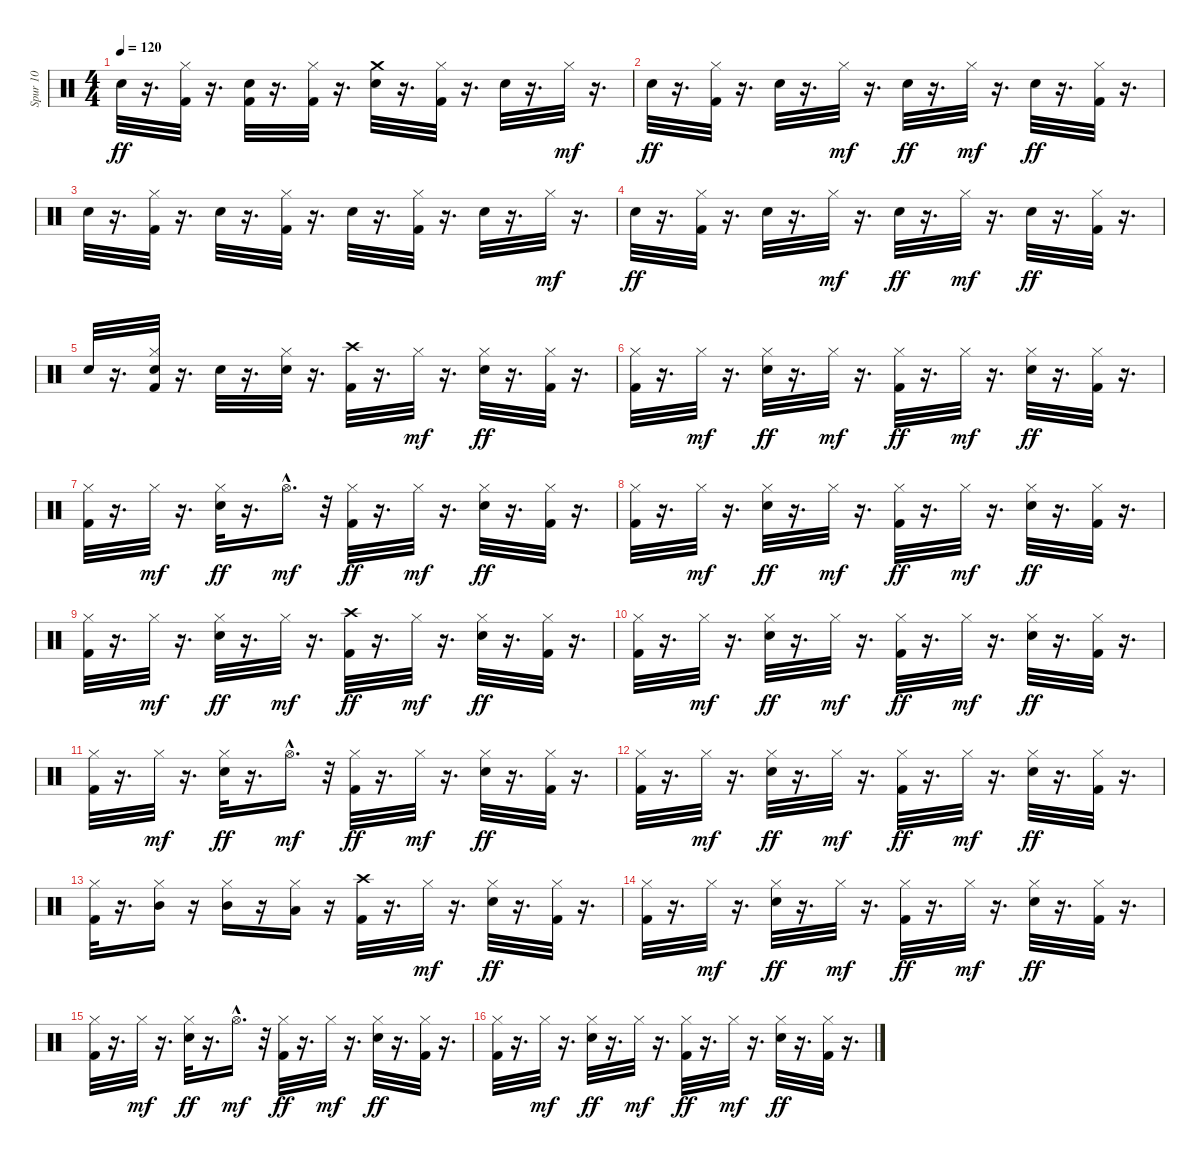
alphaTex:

\track ("Spur 10" "Spur 10") {instrument percussion}
\staff {score}
\articulation defaults
\ts (4 4)
\tempo 120
\clef neutral
\ks c "Snare (hit) 2".32{dy ff}
r.16{d} ("Hi-Hat (closed)" "Kick (hit) 2").32 r.16{d} ("Kick (hit) 2" "Snare (hit) 2").32 r.16{d} ("Hi-Hat (closed)" "Kick (hit) 2").32 r.16{d} ("Crash medium (hit)" "Snare (hit) 2").32 r.16{d} ("Hi-Hat (closed)" "Kick (hit) 2").32 r.16{d} "Snare (hit) 2".32 r.16{d} "Hi-Hat (closed)".32{dy mf} r.16{d} |
"Snare (hit) 2".32{dy ff} r.16{d} ("Hi-Hat (closed)" "Kick (hit) 2").32 r.16{d} "Snare (hit) 2".32 r.16{d} "Hi-Hat (closed)".32{dy mf} r.16{d} "Snare (hit) 2".32{dy ff} r.16{d} "Hi-Hat (closed)".32{dy mf} r.16{d} "Snare (hit) 2".32{dy ff} r.16{d} ("Hi-Hat (closed)" "Kick (hit) 2").32 r.16{d} |
"Snare (hit) 2".32 r.16{d} ("Hi-Hat (closed)" "Kick (hit) 2").32 r.16{d} "Snare (hit) 2".32 r.16{d} ("Hi-Hat (closed)" "Kick (hit) 2").32 r.16{d} "Snare (hit) 2".32 r.16{d} ("Hi-Hat (closed)" "Kick (hit) 2").32 r.16{d} "Snare (hit) 2".32 r.16{d} "Hi-Hat (closed)".32{dy mf} r.16{d} |
"Snare (hit) 2".32{dy ff} r.16{d} ("Hi-Hat (closed)" "Kick (hit) 2").32 r.16{d} "Snare (hit) 2".32 r.16{d} "Hi-Hat (closed)".32{dy mf} r.16{d} "Snare (hit) 2".32{dy ff} r.16{d} "Hi-Hat (closed)".32{dy mf} r.16{d} "Snare (hit) 2".32{dy ff} r.16{d} ("Hi-Hat (closed)" "Kick (hit) 2").32 r.16{d} |
"Snare (hit) 2".32 r.16{d} ("Hi-Hat (closed)" "Snare (hit) 2" "Kick (hit) 2").32 r.16{d} "Snare (hit) 2".32 r.16{d} ("Hi-Hat (closed)" "Snare (hit) 2").32 r.16{d} ("Crash high (hit)" "Kick (hit) 2").32 r.16{d} "Hi-Hat (closed)".32{dy mf} r.16{d} ("Hi-Hat (closed)" "Snare (hit) 2").32{dy ff} r.16{d} ("Hi-Hat (closed)" "Kick (hit) 2").32 r.16{d} |
("Hi-Hat (closed)" "Kick (hit) 2").32 r.16{d} "Hi-Hat (closed)".32{dy mf} r.16{d} ("Hi-Hat (closed)" "Snare (hit) 2").32{dy ff} r.16{d} "Hi-Hat (closed)".32{dy mf} r.16{d} ("Hi-Hat (closed)" "Kick (hit) 2").32{dy ff} r.16{d} "Hi-Hat (closed)".32{dy mf} r.16{d} ("Hi-Hat (closed)" "Snare (hit) 2").32{dy ff} r.16{d} ("Hi-Hat (closed)" "Kick (hit) 2").32 r.16{d} |
("Hi-Hat (closed)" "Kick (hit) 2").32 r.16{d} "Hi-Hat (closed)".32{dy mf} r.16{d} ("Hi-Hat (closed)" "Snare (hit) 2").32{dy ff} r.16{d} "Hi-Hat (open)"{hac}.16{d dy mf} r.32 ("Hi-Hat (closed)" "Kick (hit) 2").32{dy ff} r.16{d} "Hi-Hat (closed)".32{dy mf} r.16{d} ("Hi-Hat (closed)" "Snare (hit) 2").32{dy ff} r.16{d} ("Hi-Hat (closed)" "Kick (hit) 2").32 r.16{d} |
("Hi-Hat (closed)" "Kick (hit) 2").32 r.16{d} "Hi-Hat (closed)".32{dy mf} r.16{d} ("Hi-Hat (closed)" "Snare (hit) 2").32{dy ff} r.16{d} "Hi-Hat (closed)".32{dy mf} r.16{d} ("Hi-Hat (closed)" "Kick (hit) 2").32{dy ff} r.16{d} "Hi-Hat (closed)".32{dy mf} r.16{d} ("Hi-Hat (closed)" "Snare (hit) 2").32{dy ff} r.16{d} ("Hi-Hat (closed)" "Kick (hit) 2").32 r.16{d} |
("Hi-Hat (closed)" "Kick (hit) 2").32 r.16{d} "Hi-Hat (closed)".32{dy mf} r.16{d} ("Hi-Hat (closed)" "Snare (hit) 2").32{dy ff} r.16{d} "Hi-Hat (closed)".32{dy mf} r.16{d} ("Crash high (hit)" "Kick (hit) 2").32{dy ff} r.16{d} "Hi-Hat (closed)".32{dy mf} r.16{d} ("Hi-Hat (closed)" "Snare (hit) 2").32{dy ff} r.16{d} ("Hi-Hat (closed)" "Kick (hit) 2").32 r.16{d} |
("Hi-Hat (closed)" "Kick (hit) 2").32 r.16{d} "Hi-Hat (closed)".32{dy mf} r.16{d} ("Hi-Hat (closed)" "Snare (hit) 2").32{dy ff} r.16{d} "Hi-Hat (closed)".32{dy mf} r.16{d} ("Hi-Hat (closed)" "Kick (hit) 2").32{dy ff} r.16{d} "Hi-Hat (closed)".32{dy mf} r.16{d} ("Hi-Hat (closed)" "Snare (hit) 2").32{dy ff} r.16{d} ("Hi-Hat (closed)" "Kick (hit) 2").32 r.16{d} |
("Hi-Hat (closed)" "Kick (hit) 2").32 r.16{d} "Hi-Hat (closed)".32{dy mf} r.16{d} ("Hi-Hat (closed)" "Snare (hit) 2").32{dy ff} r.16{d} "Hi-Hat (open)"{hac}.16{d dy mf} r.32 ("Hi-Hat (closed)" "Kick (hit) 2").32{dy ff} r.16{d} "Hi-Hat (closed)".32{dy mf} r.16{d} ("Hi-Hat (closed)" "Snare (hit) 2").32{dy ff} r.16{d} ("Hi-Hat (closed)" "Kick (hit) 2").32 r.16{d} |
("Hi-Hat (closed)" "Kick (hit) 2").32 r.16{d} "Hi-Hat (closed)".32{dy mf} r.16{d} ("Hi-Hat (closed)" "Snare (hit) 2").32{dy ff} r.16{d} "Hi-Hat (closed)".32{dy mf} r.16{d} ("Hi-Hat (closed)" "Kick (hit) 2").32{dy ff} r.16{d} "Hi-Hat (closed)".32{dy mf} r.16{d} ("Hi-Hat (closed)" "Snare (hit) 2").32{dy ff} r.16{d} ("Hi-Hat (closed)" "Kick (hit) 2").32 r.16{d} |
("Hi-Hat (closed)" "Kick (hit) 2").32 r.16{d} ("Hi-Hat (closed)" "Mid Tom (hit)").16 r.16 ("Hi-Hat (closed)" "Mid Tom (hit)").16 r.16 ("Hi-Hat (closed)" "Low Tom (hit)").16 r.16 ("Crash high (hit)" "Kick (hit) 2").32 r.16{d} "Hi-Hat (closed)".32{dy mf} r.16{d} ("Hi-Hat (closed)" "Snare (hit) 2").32{dy ff} r.16{d} ("Hi-Hat (closed)" "Kick (hit) 2").32 r.16{d} |
("Hi-Hat (closed)" "Kick (hit) 2").32 r.16{d} "Hi-Hat (closed)".32{dy mf} r.16{d} ("Hi-Hat (closed)" "Snare (hit) 2").32{dy ff} r.16{d} "Hi-Hat (closed)".32{dy mf} r.16{d} ("Hi-Hat (closed)" "Kick (hit) 2").32{dy ff} r.16{d} "Hi-Hat (closed)".32{dy mf} r.16{d} ("Hi-Hat (closed)" "Snare (hit) 2").32{dy ff} r.16{d} ("Hi-Hat (closed)" "Kick (hit) 2").32 r.16{d} |
("Hi-Hat (closed)" "Kick (hit) 2").32 r.16{d} "Hi-Hat (closed)".32{dy mf} r.16{d} ("Hi-Hat (closed)" "Snare (hit) 2").32{dy ff} r.16{d} "Hi-Hat (open)"{hac}.16{d dy mf} r.32 ("Hi-Hat (closed)" "Kick (hit) 2").32{dy ff} r.16{d} "Hi-Hat (closed)".32{dy mf} r.16{d} ("Hi-Hat (closed)" "Snare (hit) 2").32{dy ff} r.16{d} ("Hi-Hat (closed)" "Kick (hit) 2").32 r.16{d} |
("Hi-Hat (closed)" "Kick (hit) 2").32 r.16{d} "Hi-Hat (closed)".32{dy mf} r.16{d} ("Hi-Hat (closed)" "Snare (hit) 2").32{dy ff} r.16{d} "Hi-Hat (closed)".32{dy mf} r.16{d} ("Hi-Hat (closed)" "Kick (hit) 2").32{dy ff} r.16{d} "Hi-Hat (closed)".32{dy mf} r.16{d} ("Hi-Hat (closed)" "Snare (hit) 2").32{dy ff} r.16{d} ("Hi-Hat (closed)" "Kick (hit) 2").32 r.16{d}
